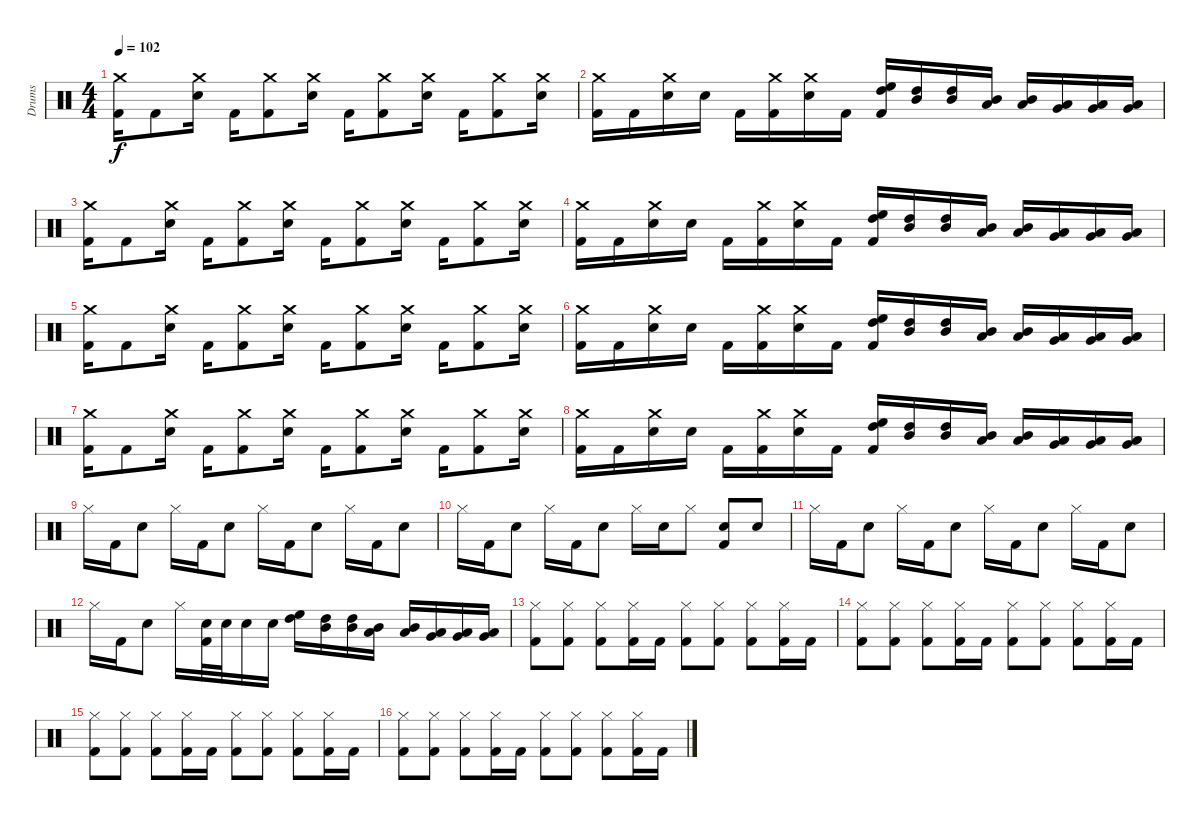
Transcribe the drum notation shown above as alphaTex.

\track ("Drums" "Drums") {instrument percussion}
\staff {score}
\articulation defaults
\ts (4 4)
\tempo 102
\clef neutral
\ks c
("Crash medium (hit)" "Kick (hit) 2").16{dy f} "Kick (hit) 2".8 ("Crash medium (hit)" "Electric Snare (hit)").16 "Kick (hit) 2".16 ("Crash medium (hit)" "Kick (hit) 2").8 ("Crash medium (hit)" "Electric Snare (hit)").16 "Kick (hit) 2".16 ("Crash medium (hit)" "Kick (hit) 2").8 ("Crash medium (hit)" "Electric Snare (hit)").16 "Kick (hit) 2".16 ("Crash medium (hit)" "Kick (hit) 2").8 ("Crash medium (hit)" "Electric Snare (hit)").16 |
("Crash medium (hit)" "Kick (hit) 2").16 "Kick (hit) 2".16 ("Crash medium (hit)" "Electric Snare (hit)").16 "Electric Snare (hit)".16 "Kick (hit) 2".16 ("Crash medium (hit)" "Kick (hit) 2").16 ("Crash medium (hit)" "Electric Snare (hit)").16 "Kick (hit) 2".16 ("High Floor Tom (hit)" "High Tom (hit)" "Kick (hit) 2").16 ("Mid Tom (hit)" "High Tom (hit)").16 ("High Tom (hit)" "Mid Tom (hit)").16 ("Low Tom (hit)" "Mid Tom (hit)").16 ("Mid Tom (hit)" "Low Tom (hit)").16 ("Very Low Tom (hit)" "Low Tom (hit)").16 ("Low Tom (hit)" "Very Low Tom (hit)").16 ("Low Floor Tom (hit)" "Very Low Tom (hit)").16 |
("Crash medium (hit)" "Kick (hit) 2").16 "Kick (hit) 2".8 ("Crash medium (hit)" "Electric Snare (hit)").16 "Kick (hit) 2".16 ("Crash medium (hit)" "Kick (hit) 2").8 ("Crash medium (hit)" "Electric Snare (hit)").16 "Kick (hit) 2".16 ("Crash medium (hit)" "Kick (hit) 2").8 ("Crash medium (hit)" "Electric Snare (hit)").16 "Kick (hit) 2".16 ("Crash medium (hit)" "Kick (hit) 2").8 ("Crash medium (hit)" "Electric Snare (hit)").16 |
("Crash medium (hit)" "Kick (hit) 2").16 "Kick (hit) 2".16 ("Crash medium (hit)" "Electric Snare (hit)").16 "Electric Snare (hit)".16 "Kick (hit) 2".16 ("Crash medium (hit)" "Kick (hit) 2").16 ("Crash medium (hit)" "Electric Snare (hit)").16 "Kick (hit) 2".16 ("High Floor Tom (hit)" "High Tom (hit)" "Kick (hit) 2").16 ("Mid Tom (hit)" "High Tom (hit)").16 ("High Tom (hit)" "Mid Tom (hit)").16 ("Low Tom (hit)" "Mid Tom (hit)").16 ("Mid Tom (hit)" "Low Tom (hit)").16 ("Very Low Tom (hit)" "Low Tom (hit)").16 ("Low Tom (hit)" "Very Low Tom (hit)").16 ("Low Floor Tom (hit)" "Very Low Tom (hit)").16 |
("Crash medium (hit)" "Kick (hit) 2").16 "Kick (hit) 2".8 ("Crash medium (hit)" "Electric Snare (hit)").16 "Kick (hit) 2".16 ("Crash medium (hit)" "Kick (hit) 2").8 ("Crash medium (hit)" "Electric Snare (hit)").16 "Kick (hit) 2".16 ("Crash medium (hit)" "Kick (hit) 2").8 ("Crash medium (hit)" "Electric Snare (hit)").16 "Kick (hit) 2".16 ("Crash medium (hit)" "Kick (hit) 2").8 ("Crash medium (hit)" "Electric Snare (hit)").16 |
("Crash medium (hit)" "Kick (hit) 2").16 "Kick (hit) 2".16 ("Crash medium (hit)" "Electric Snare (hit)").16 "Electric Snare (hit)".16 "Kick (hit) 2".16 ("Crash medium (hit)" "Kick (hit) 2").16 ("Crash medium (hit)" "Electric Snare (hit)").16 "Kick (hit) 2".16 ("High Floor Tom (hit)" "High Tom (hit)" "Kick (hit) 2").16 ("Mid Tom (hit)" "High Tom (hit)").16 ("High Tom (hit)" "Mid Tom (hit)").16 ("Low Tom (hit)" "Mid Tom (hit)").16 ("Mid Tom (hit)" "Low Tom (hit)").16 ("Very Low Tom (hit)" "Low Tom (hit)").16 ("Low Tom (hit)" "Very Low Tom (hit)").16 ("Low Floor Tom (hit)" "Very Low Tom (hit)").16 |
("Crash medium (hit)" "Kick (hit) 2").16 "Kick (hit) 2".8 ("Crash medium (hit)" "Electric Snare (hit)").16 "Kick (hit) 2".16 ("Crash medium (hit)" "Kick (hit) 2").8 ("Crash medium (hit)" "Electric Snare (hit)").16 "Kick (hit) 2".16 ("Crash medium (hit)" "Kick (hit) 2").8 ("Crash medium (hit)" "Electric Snare (hit)").16 "Kick (hit) 2".16 ("Crash medium (hit)" "Kick (hit) 2").8 ("Crash medium (hit)" "Electric Snare (hit)").16 |
("Crash medium (hit)" "Kick (hit) 2").16 "Kick (hit) 2".16 ("Crash medium (hit)" "Electric Snare (hit)").16 "Electric Snare (hit)".16 "Kick (hit) 2".16 ("Crash medium (hit)" "Kick (hit) 2").16 ("Crash medium (hit)" "Electric Snare (hit)").16 "Kick (hit) 2".16 ("High Floor Tom (hit)" "High Tom (hit)" "Kick (hit) 2").16 ("Mid Tom (hit)" "High Tom (hit)").16 ("High Tom (hit)" "Mid Tom (hit)").16 ("Low Tom (hit)" "Mid Tom (hit)").16 ("Mid Tom (hit)" "Low Tom (hit)").16 ("Very Low Tom (hit)" "Low Tom (hit)").16 ("Low Tom (hit)" "Very Low Tom (hit)").16 ("Low Floor Tom (hit)" "Very Low Tom (hit)").16 |
"Hi-Hat (closed)".16 "Kick (hit) 2".16 "Electric Snare (hit)".8 "Hi-Hat (closed)".16 "Kick (hit) 2".16 "Electric Snare (hit)".8 "Hi-Hat (closed)".16 "Kick (hit) 2".16 "Electric Snare (hit)".8 "Hi-Hat (closed)".16 "Kick (hit) 2".16 "Electric Snare (hit)".8 |
"Hi-Hat (closed)".16 "Kick (hit) 2".16 "Electric Snare (hit)".8 "Hi-Hat (closed)".16 "Kick (hit) 2".16 "Electric Snare (hit)".8 "Hi-Hat (closed)".16 "Electric Snare (hit)".16 "Hi-Hat (closed)".8 ("Electric Snare (hit)" "Kick (hit) 2").8 "Electric Snare (hit)".8 |
"Hi-Hat (closed)".16 "Kick (hit) 2".16 "Electric Snare (hit)".8 "Hi-Hat (closed)".16 "Kick (hit) 2".16 "Electric Snare (hit)".8 "Hi-Hat (closed)".16 "Kick (hit) 2".16 "Electric Snare (hit)".8 "Hi-Hat (closed)".16 "Kick (hit) 2".16 "Electric Snare (hit)".8 |
"Hi-Hat (closed)".16 "Kick (hit) 2".16 "Electric Snare (hit)".8 "Hi-Hat (closed)".16 ("Electric Snare (hit)" "Kick (hit) 2").32 "Electric Snare (hit)".32 "Electric Snare (hit)".16 "Electric Snare (hit)".16 ("High Floor Tom (hit)" "High Tom (hit)").16 ("Mid Tom (hit)" "High Tom (hit)").16 ("High Tom (hit)" "Mid Tom (hit)").16 ("Low Tom (hit)" "Mid Tom (hit)").16 ("Mid Tom (hit)" "Low Tom (hit)").16 ("Very Low Tom (hit)" "Low Tom (hit)").16 ("Low Tom (hit)" "Very Low Tom (hit)").16 ("Low Floor Tom (hit)" "Very Low Tom (hit)").16 |
("Hi-Hat (closed)" "Kick (hit) 2").8 ("Hi-Hat (closed)" "Kick (hit) 2").8 ("Hi-Hat (closed)" "Kick (hit) 2").8 ("Hi-Hat (closed)" "Kick (hit) 2").16 "Kick (hit) 2".16 ("Hi-Hat (closed)" "Kick (hit) 2").8 ("Hi-Hat (closed)" "Kick (hit) 2").8 ("Hi-Hat (closed)" "Kick (hit) 2").8 ("Hi-Hat (closed)" "Kick (hit) 2").16 "Kick (hit) 2".16 |
("Hi-Hat (closed)" "Kick (hit) 2").8 ("Hi-Hat (closed)" "Kick (hit) 2").8 ("Hi-Hat (closed)" "Kick (hit) 2").8 ("Hi-Hat (closed)" "Kick (hit) 2").16 "Kick (hit) 2".16 ("Hi-Hat (closed)" "Kick (hit) 2").8 ("Hi-Hat (closed)" "Kick (hit) 2").8 ("Hi-Hat (closed)" "Kick (hit) 2").8 ("Hi-Hat (closed)" "Kick (hit) 2").16 "Kick (hit) 2".16 |
("Hi-Hat (closed)" "Kick (hit) 2").8 ("Hi-Hat (closed)" "Kick (hit) 2").8 ("Hi-Hat (closed)" "Kick (hit) 2").8 ("Hi-Hat (closed)" "Kick (hit) 2").16 "Kick (hit) 2".16 ("Hi-Hat (closed)" "Kick (hit) 2").8 ("Hi-Hat (closed)" "Kick (hit) 2").8 ("Hi-Hat (closed)" "Kick (hit) 2").8 ("Hi-Hat (closed)" "Kick (hit) 2").16 "Kick (hit) 2".16 |
("Hi-Hat (closed)" "Kick (hit) 2").8 ("Hi-Hat (closed)" "Kick (hit) 2").8 ("Hi-Hat (closed)" "Kick (hit) 2").8 ("Hi-Hat (closed)" "Kick (hit) 2").16 "Kick (hit) 2".16 ("Hi-Hat (closed)" "Kick (hit) 2").8 ("Hi-Hat (closed)" "Kick (hit) 2").8 ("Hi-Hat (closed)" "Kick (hit) 2").8 ("Hi-Hat (closed)" "Kick (hit) 2").16 "Kick (hit) 2".16
